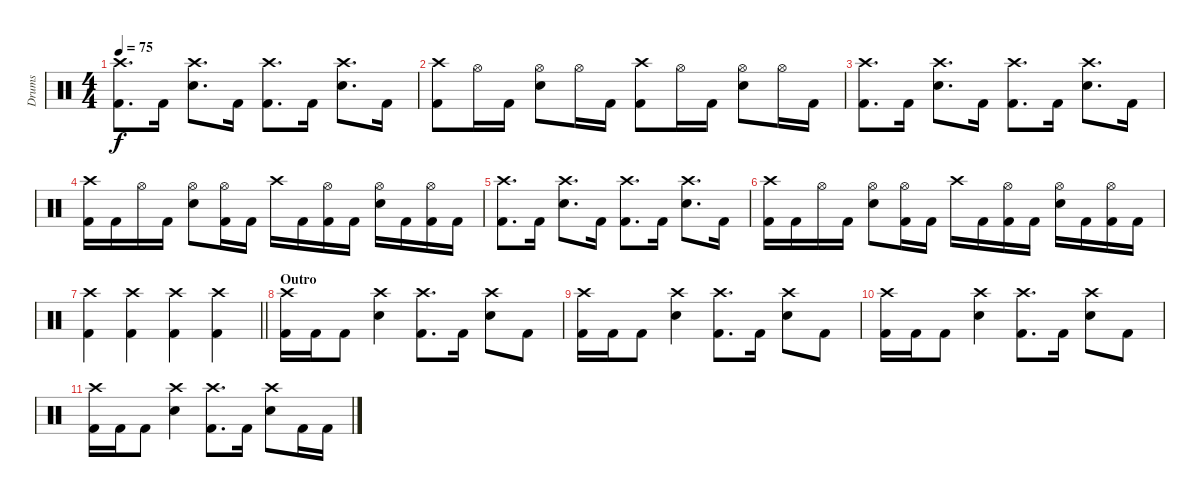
\track ("Drums" "Drums") {instrument percussion}
\staff {score}
\articulation defaults
\ts (4 4)
\tempo 75
\clef neutral
\ks c
("Crash high (hit)" "Kick (hit) 2").8{d dy f} "Kick (hit) 2".16 ("Crash high (hit)" "Snare (hit) 2").8{d} "Kick (hit) 2".16 ("Crash high (hit)" "Kick (hit) 2").8{d} "Kick (hit) 2".16 ("Crash high (hit)" "Snare (hit) 2").8{d} "Kick (hit) 2".16 |
("Crash high (hit)" "Kick (hit) 2").8 "Hi-Hat (open)".16 "Kick (hit) 2".16 ("Hi-Hat (open)" "Snare (hit) 2").8 "Hi-Hat (open)".16 "Kick (hit) 2".16 ("Crash high (hit)" "Kick (hit) 2").8 "Hi-Hat (open)".16 "Kick (hit) 2".16 ("Hi-Hat (open)" "Snare (hit) 2").8 "Hi-Hat (open)".16 "Kick (hit) 2".16 |
("Crash high (hit)" "Kick (hit) 2").8{d} "Kick (hit) 2".16 ("Crash high (hit)" "Snare (hit) 2").8{d} "Kick (hit) 2".16 ("Crash high (hit)" "Kick (hit) 2").8{d} "Kick (hit) 2".16 ("Crash high (hit)" "Snare (hit) 2").8{d} "Kick (hit) 2".16 |
("Crash high (hit)" "Kick (hit) 2").16 "Kick (hit) 2".16 "Hi-Hat (open)".16 "Kick (hit) 2".16 ("Hi-Hat (open)" "Snare (hit) 2").8 ("Hi-Hat (open)" "Kick (hit) 2").16 "Kick (hit) 2".16 "Crash high (hit)".16 "Kick (hit) 2".16 ("Hi-Hat (open)" "Kick (hit) 2").16 "Kick (hit) 2".16 ("Hi-Hat (open)" "Snare (hit) 2").16 "Kick (hit) 2".16 ("Hi-Hat (open)" "Kick (hit) 2").16 "Kick (hit) 2".16 |
("Crash high (hit)" "Kick (hit) 2").8{d} "Kick (hit) 2".16 ("Crash high (hit)" "Snare (hit) 2").8{d} "Kick (hit) 2".16 ("Crash high (hit)" "Kick (hit) 2").8{d} "Kick (hit) 2".16 ("Crash high (hit)" "Snare (hit) 2").8{d} "Kick (hit) 2".16 |
("Crash high (hit)" "Kick (hit) 2").16 "Kick (hit) 2".16 "Hi-Hat (open)".16 "Kick (hit) 2".16 ("Hi-Hat (open)" "Snare (hit) 2").8 ("Hi-Hat (open)" "Kick (hit) 2").16 "Kick (hit) 2".16 "Crash high (hit)".16 "Kick (hit) 2".16 ("Hi-Hat (open)" "Kick (hit) 2").16 "Kick (hit) 2".16 ("Hi-Hat (open)" "Snare (hit) 2").16 "Kick (hit) 2".16 ("Hi-Hat (open)" "Kick (hit) 2").16 "Kick (hit) 2".16 |
\barLineRight lightlight
("Crash high (hit)" "Kick (hit) 2").4 ("Crash high (hit)" "Kick (hit) 2").4 ("Crash high (hit)" "Kick (hit) 2").4 ("Crash high (hit)" "Kick (hit) 2").4 |
\section ("" "Outro")
("Crash high (hit)" "Kick (hit) 2").16 "Kick (hit) 2".16 "Kick (hit) 2".8 ("Crash high (hit)" "Snare (hit) 2").4 ("Crash high (hit)" "Kick (hit) 2").8{d} "Kick (hit) 2".16 ("Crash high (hit)" "Snare (hit) 2").8 "Kick (hit) 2".8 |
("Crash high (hit)" "Kick (hit) 2").16 "Kick (hit) 2".16 "Kick (hit) 2".8 ("Crash high (hit)" "Snare (hit) 2").4 ("Crash high (hit)" "Kick (hit) 2").8{d} "Kick (hit) 2".16 ("Crash high (hit)" "Snare (hit) 2").8 "Kick (hit) 2".8 |
("Crash high (hit)" "Kick (hit) 2").16 "Kick (hit) 2".16 "Kick (hit) 2".8 ("Crash high (hit)" "Snare (hit) 2").4 ("Crash high (hit)" "Kick (hit) 2").8{d} "Kick (hit) 2".16 ("Crash high (hit)" "Snare (hit) 2").8 "Kick (hit) 2".8 |
("Crash high (hit)" "Kick (hit) 2").16 "Kick (hit) 2".16 "Kick (hit) 2".8 ("Crash high (hit)" "Snare (hit) 2").4 ("Crash high (hit)" "Kick (hit) 2").8{d} "Kick (hit) 2".16 ("Crash high (hit)" "Snare (hit) 2").8 "Kick (hit) 2".16 "Kick (hit) 2".16
